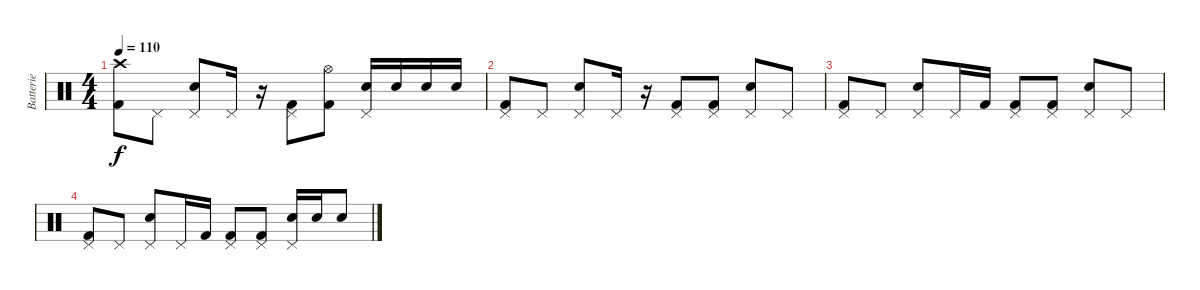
\track ("Batterie" "Batterie") {instrument percussion}
\staff {score}
\articulation defaults
\ts (4 4)
\tempo 110
\clef neutral
\ks c
("Crash high (hit)" "Kick (hit) 2").8{dy f} "Pedal Hi-Hat (hit)".8 ("Pedal Hi-Hat (hit)" "Electric Snare (hit)").8 "Pedal Hi-Hat (hit)".16 r.16 ("Pedal Hi-Hat (hit)" "Kick (hit) 2").8 ("Hi-Hat (open)" "Kick (hit) 2").8 ("Pedal Hi-Hat (hit)" "Electric Snare (hit)").16 "Electric Snare (hit)".16 "Electric Snare (hit)".16 "Electric Snare (hit)".16 |
("Pedal Hi-Hat (hit)" "Kick (hit) 2").8 "Pedal Hi-Hat (hit)".8 ("Pedal Hi-Hat (hit)" "Electric Snare (hit)").8 "Pedal Hi-Hat (hit)".16 r.16 ("Pedal Hi-Hat (hit)" "Kick (hit) 2").8 ("Pedal Hi-Hat (hit)" "Kick (hit) 2").8 ("Pedal Hi-Hat (hit)" "Electric Snare (hit)").8 "Pedal Hi-Hat (hit)".8 |
("Pedal Hi-Hat (hit)" "Kick (hit) 2").8 "Pedal Hi-Hat (hit)".8 ("Pedal Hi-Hat (hit)" "Electric Snare (hit)").8 "Pedal Hi-Hat (hit)".16 "Kick (hit) 2".16 ("Pedal Hi-Hat (hit)" "Kick (hit) 2").8 ("Pedal Hi-Hat (hit)" "Kick (hit) 2").8 ("Pedal Hi-Hat (hit)" "Electric Snare (hit)").8 "Pedal Hi-Hat (hit)".8 |
("Pedal Hi-Hat (hit)" "Kick (hit) 2").8 "Pedal Hi-Hat (hit)".8 ("Pedal Hi-Hat (hit)" "Electric Snare (hit)").8 "Pedal Hi-Hat (hit)".16 "Kick (hit) 2".16 ("Pedal Hi-Hat (hit)" "Kick (hit) 2").8 ("Pedal Hi-Hat (hit)" "Kick (hit) 2").8 ("Pedal Hi-Hat (hit)" "Electric Snare (hit)").16 "Electric Snare (hit)".16 "Electric Snare (hit)".8
